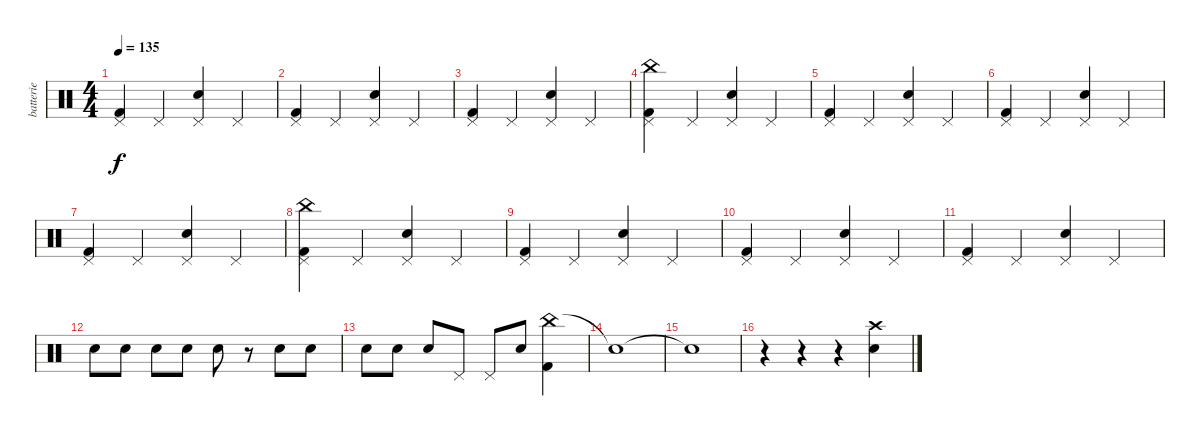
\track ("batterie" "batterie") {instrument percussion}
\staff {score}
\articulation defaults
\ts (4 4)
\tempo 135
\clef neutral
\ks c
("Kick (hit) 2" "Pedal Hi-Hat (hit)").4{dy f} "Pedal Hi-Hat (hit)".4 ("Snare (hit) 2" "Pedal Hi-Hat (hit)").4 "Pedal Hi-Hat (hit)".4 |
("Kick (hit) 2" "Pedal Hi-Hat (hit)").4 "Pedal Hi-Hat (hit)".4 ("Snare (hit) 2" "Pedal Hi-Hat (hit)").4 "Pedal Hi-Hat (hit)".4 |
("Kick (hit) 2" "Pedal Hi-Hat (hit)").4 "Pedal Hi-Hat (hit)".4 ("Snare (hit) 2" "Pedal Hi-Hat (hit)").4 "Pedal Hi-Hat (hit)".4 |
("China (hit)" "Kick (hit) 2" "Pedal Hi-Hat (hit)").4 "Pedal Hi-Hat (hit)".4 ("Snare (hit) 2" "Pedal Hi-Hat (hit)").4 "Pedal Hi-Hat (hit)".4 |
("Kick (hit) 2" "Pedal Hi-Hat (hit)").4 "Pedal Hi-Hat (hit)".4 ("Snare (hit) 2" "Pedal Hi-Hat (hit)").4 "Pedal Hi-Hat (hit)".4 |
("Kick (hit) 2" "Pedal Hi-Hat (hit)").4 "Pedal Hi-Hat (hit)".4 ("Snare (hit) 2" "Pedal Hi-Hat (hit)").4 "Pedal Hi-Hat (hit)".4 |
("Kick (hit) 2" "Pedal Hi-Hat (hit)").4 "Pedal Hi-Hat (hit)".4 ("Snare (hit) 2" "Pedal Hi-Hat (hit)").4 "Pedal Hi-Hat (hit)".4 |
("China (hit)" "Kick (hit) 2" "Pedal Hi-Hat (hit)").4 "Pedal Hi-Hat (hit)".4 ("Snare (hit) 2" "Pedal Hi-Hat (hit)").4 "Pedal Hi-Hat (hit)".4 |
("Kick (hit) 2" "Pedal Hi-Hat (hit)").4 "Pedal Hi-Hat (hit)".4 ("Snare (hit) 2" "Pedal Hi-Hat (hit)").4 "Pedal Hi-Hat (hit)".4 |
("Kick (hit) 2" "Pedal Hi-Hat (hit)").4 "Pedal Hi-Hat (hit)".4 ("Snare (hit) 2" "Pedal Hi-Hat (hit)").4 "Pedal Hi-Hat (hit)".4 |
("Kick (hit) 2" "Pedal Hi-Hat (hit)").4 "Pedal Hi-Hat (hit)".4 ("Snare (hit) 2" "Pedal Hi-Hat (hit)").4 "Pedal Hi-Hat (hit)".4 |
"Snare (hit) 2".8 "Snare (hit) 2".8 "Snare (hit) 2".8 "Snare (hit) 2".8 "Snare (hit) 2".8 r.8 "Snare (hit) 2".8 "Snare (hit) 2".8 |
"Snare (hit) 2".8 "Snare (hit) 2".8 "Snare (hit) 2".8 "Pedal Hi-Hat (hit)".8 "Pedal Hi-Hat (hit)".8 "Snare (hit) 2".8 ("China (hit)" "Kick (hit) 2").4 |
"Snare (hit)"{t}.1 |
"Snare (hit)"{t}.1 |
r.4 r.4 r.4 ("Crash high (hit)" "Snare (hit) 2").4
